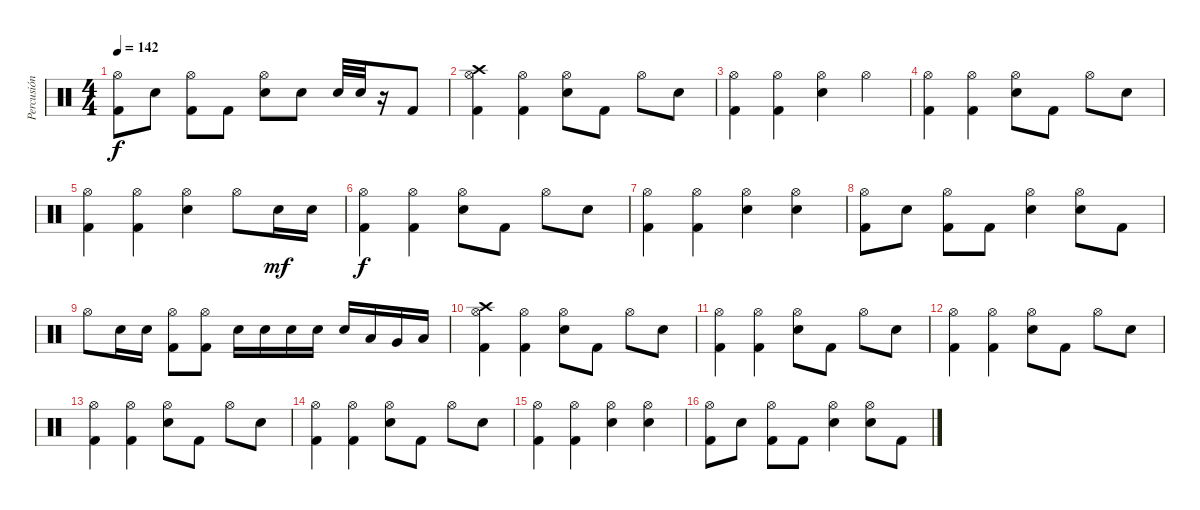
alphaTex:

\track ("Percusión" "Percusión") {instrument percussion}
\staff {score}
\articulation defaults
\ts (4 4)
\tempo 142
\clef neutral
\ks c
("Hi-Hat (open)" "Kick (hit) 2").8{dy f} "Snare (hit) 2".8 ("Hi-Hat (open)" "Kick (hit) 2").8 "Kick (hit) 2".8 ("Hi-Hat (open)" "Snare (hit) 2").8 "Snare (hit) 2".8 "Snare (hit) 2".32 "Snare (hit) 2".32 r.16 "Kick (hit) 2".8 |
("Crash high (hit)" "Hi-Hat (open)" "Kick (hit) 2").4 ("Hi-Hat (open)" "Kick (hit) 2").4 ("Hi-Hat (open)" "Snare (hit) 2").8 "Kick (hit) 2".8 "Hi-Hat (open)".8 "Snare (hit) 2".8 |
("Hi-Hat (open)" "Kick (hit) 2").4 ("Hi-Hat (open)" "Kick (hit) 2").4 ("Hi-Hat (open)" "Snare (hit) 2").4 "Hi-Hat (open)".4 |
("Hi-Hat (open)" "Kick (hit) 2").4 ("Hi-Hat (open)" "Kick (hit) 2").4 ("Hi-Hat (open)" "Snare (hit) 2").8 "Kick (hit) 2".8 "Hi-Hat (open)".8 "Snare (hit) 2".8 |
("Hi-Hat (open)" "Kick (hit) 2").4 ("Hi-Hat (open)" "Kick (hit) 2").4 ("Hi-Hat (open)" "Snare (hit) 2").4 "Hi-Hat (open)".8 "Snare (hit) 2".16{dy mf} "Snare (hit) 2".16 |
("Hi-Hat (open)" "Kick (hit) 2").4{dy f} ("Hi-Hat (open)" "Kick (hit) 2").4 ("Hi-Hat (open)" "Snare (hit) 2").8 "Kick (hit) 2".8 "Hi-Hat (open)".8 "Snare (hit) 2".8 |
("Hi-Hat (open)" "Kick (hit) 2").4 ("Hi-Hat (open)" "Kick (hit) 2").4 ("Hi-Hat (open)" "Snare (hit) 2").4 ("Hi-Hat (open)" "Snare (hit) 2").4 |
("Hi-Hat (open)" "Kick (hit) 2").8 "Snare (hit) 2".8 ("Hi-Hat (open)" "Kick (hit) 2").8 "Kick (hit) 2".8 ("Hi-Hat (open)" "Snare (hit) 2").4 ("Hi-Hat (open)" "Snare (hit) 2").8 "Kick (hit) 2".8 |
"Hi-Hat (open)".8 "Snare (hit) 2".16 "Snare (hit) 2".16 ("Hi-Hat (open)" "Kick (hit) 2").8 ("Hi-Hat (open)" "Kick (hit) 2").8 "Snare (hit) 2".16 "Snare (hit) 2".16 "Snare (hit) 2".16 "Snare (hit) 2".16 "Snare (hit) 2".16 "Low Tom (hit)".16 "Very Low Tom (hit)".16 "Low Floor Tom (hit)".16 |
("Crash high (hit)" "Hi-Hat (open)" "Kick (hit) 2").4 ("Hi-Hat (open)" "Kick (hit) 2").4 ("Hi-Hat (open)" "Snare (hit) 2").8 "Kick (hit) 2".8 "Hi-Hat (open)".8 "Snare (hit) 2".8 |
("Hi-Hat (open)" "Kick (hit) 2").4 ("Hi-Hat (open)" "Kick (hit) 2").4 ("Hi-Hat (open)" "Snare (hit) 2").8 "Kick (hit) 2".8 "Hi-Hat (open)".8 "Snare (hit) 2".8 |
("Hi-Hat (open)" "Kick (hit) 2").4 ("Hi-Hat (open)" "Kick (hit) 2").4 ("Hi-Hat (open)" "Snare (hit) 2").8 "Kick (hit) 2".8 "Hi-Hat (open)".8 "Snare (hit) 2".8 |
("Hi-Hat (open)" "Kick (hit) 2").4 ("Hi-Hat (open)" "Kick (hit) 2").4 ("Hi-Hat (open)" "Snare (hit) 2").8 "Kick (hit) 2".8 "Hi-Hat (open)".8 "Snare (hit) 2".8 |
("Hi-Hat (open)" "Kick (hit) 2").4 ("Hi-Hat (open)" "Kick (hit) 2").4 ("Hi-Hat (open)" "Snare (hit) 2").8 "Kick (hit) 2".8 "Hi-Hat (open)".8 "Snare (hit) 2".8 |
("Hi-Hat (open)" "Kick (hit) 2").4 ("Hi-Hat (open)" "Kick (hit) 2").4 ("Hi-Hat (open)" "Snare (hit) 2").4 ("Hi-Hat (open)" "Snare (hit) 2").4 |
("Hi-Hat (open)" "Kick (hit) 2").8 "Snare (hit) 2".8 ("Hi-Hat (open)" "Kick (hit) 2").8 "Kick (hit) 2".8 ("Hi-Hat (open)" "Snare (hit) 2").4 ("Hi-Hat (open)" "Snare (hit) 2").8 "Kick (hit) 2".8
